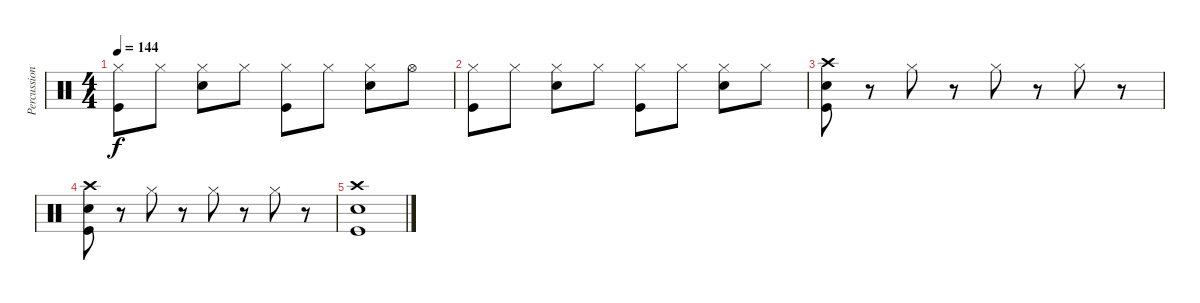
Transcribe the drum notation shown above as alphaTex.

\track ("Percussion" "Percussion") {instrument percussion}
\staff {score}
\articulation defaults
\ts (4 4)
\tempo 144
\clef neutral
\ks c
("Hi-Hat (closed)" "Kick (hit)").8{dy f} "Hi-Hat (closed)".8 ("Hi-Hat (closed)" "Snare (hit) 2").8 "Hi-Hat (closed)".8 ("Hi-Hat (closed)" "Kick (hit)").8 "Hi-Hat (closed)".8 ("Hi-Hat (closed)" "Snare (hit) 2").8 "Hi-Hat (open)".8 |
("Hi-Hat (closed)" "Kick (hit)").8 "Hi-Hat (closed)".8 ("Hi-Hat (closed)" "Snare (hit) 2").8 "Hi-Hat (closed)".8 ("Hi-Hat (closed)" "Kick (hit)").8 "Hi-Hat (closed)".8 ("Hi-Hat (closed)" "Snare (hit) 2").8 "Hi-Hat (closed)".8 |
("Crash high (hit)" "Snare (hit) 2" "Kick (hit)").8 r.8 "Hi-Hat (closed)".8 r.8 "Hi-Hat (closed)".8 r.8 "Hi-Hat (closed)".8 r.8 |
("Crash high (hit)" "Snare (hit) 2" "Kick (hit)").8 r.8 "Hi-Hat (closed)".8 r.8 "Hi-Hat (closed)".8 r.8 "Hi-Hat (closed)".8 r.8 |
("Crash high (hit)" "Snare (hit) 2" "Kick (hit)").1
